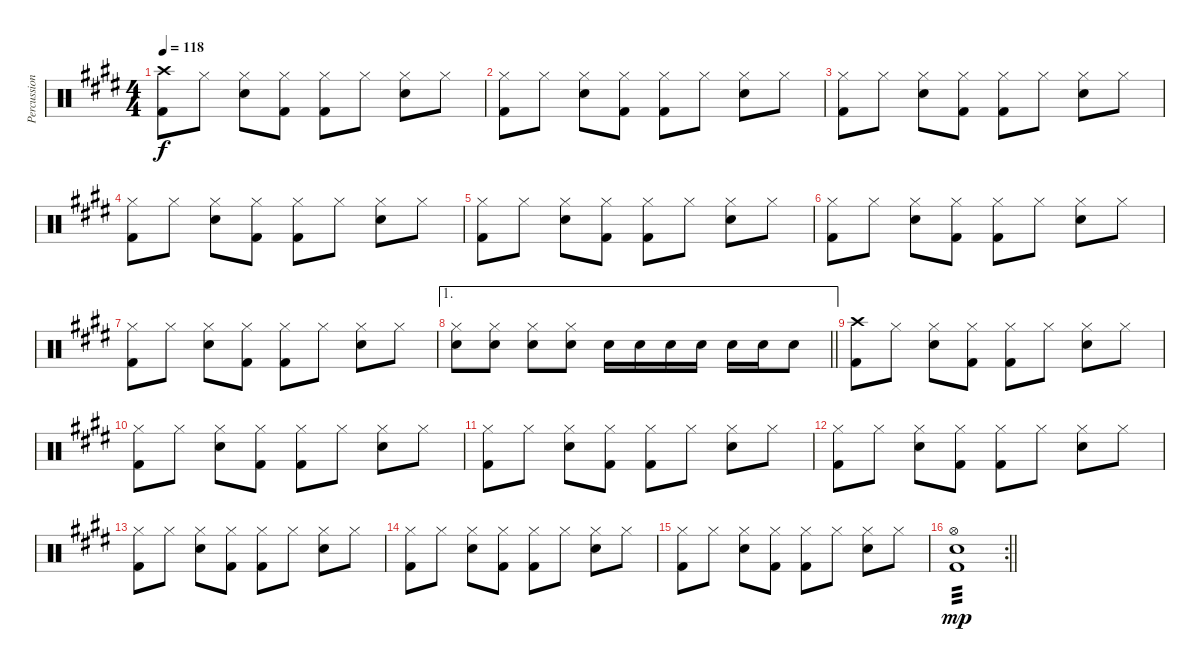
\track ("Percussion" "Percussion") {instrument percussion}
\staff {score}
\articulation defaults
\ts (4 4)
\tempo 118
\clef neutral
\ks e
("Crash high (hit)" "Kick (hit) 2").8{dy f} "Hi-Hat (closed)".8 ("Hi-Hat (closed)" "Snare (hit) 2").8 ("Hi-Hat (closed)" "Kick (hit) 2").8 ("Hi-Hat (closed)" "Kick (hit) 2").8 "Hi-Hat (closed)".8 ("Hi-Hat (closed)" "Snare (hit) 2").8 "Hi-Hat (closed)".8 |
("Hi-Hat (closed)" "Kick (hit) 2").8 "Hi-Hat (closed)".8 ("Hi-Hat (closed)" "Snare (hit) 2").8 ("Hi-Hat (closed)" "Kick (hit) 2").8 ("Hi-Hat (closed)" "Kick (hit) 2").8 "Hi-Hat (closed)".8 ("Hi-Hat (closed)" "Snare (hit) 2").8 "Hi-Hat (closed)".8 |
("Hi-Hat (closed)" "Kick (hit) 2").8 "Hi-Hat (closed)".8 ("Hi-Hat (closed)" "Snare (hit) 2").8 ("Hi-Hat (closed)" "Kick (hit) 2").8 ("Hi-Hat (closed)" "Kick (hit) 2").8 "Hi-Hat (closed)".8 ("Hi-Hat (closed)" "Snare (hit) 2").8 "Hi-Hat (closed)".8 |
("Hi-Hat (closed)" "Kick (hit) 2").8 "Hi-Hat (closed)".8 ("Hi-Hat (closed)" "Snare (hit) 2").8 ("Hi-Hat (closed)" "Kick (hit) 2").8 ("Hi-Hat (closed)" "Kick (hit) 2").8 "Hi-Hat (closed)".8 ("Hi-Hat (closed)" "Snare (hit) 2").8 "Hi-Hat (closed)".8 |
("Hi-Hat (closed)" "Kick (hit) 2").8 "Hi-Hat (closed)".8 ("Hi-Hat (closed)" "Snare (hit) 2").8 ("Hi-Hat (closed)" "Kick (hit) 2").8 ("Hi-Hat (closed)" "Kick (hit) 2").8 "Hi-Hat (closed)".8 ("Hi-Hat (closed)" "Snare (hit) 2").8 "Hi-Hat (closed)".8 |
("Hi-Hat (closed)" "Kick (hit) 2").8 "Hi-Hat (closed)".8 ("Hi-Hat (closed)" "Snare (hit) 2").8 ("Hi-Hat (closed)" "Kick (hit) 2").8 ("Hi-Hat (closed)" "Kick (hit) 2").8 "Hi-Hat (closed)".8 ("Hi-Hat (closed)" "Snare (hit) 2").8 "Hi-Hat (closed)".8 |
("Hi-Hat (closed)" "Kick (hit) 2").8 "Hi-Hat (closed)".8 ("Hi-Hat (closed)" "Snare (hit) 2").8 ("Hi-Hat (closed)" "Kick (hit) 2").8 ("Hi-Hat (closed)" "Kick (hit) 2").8 "Hi-Hat (closed)".8 ("Hi-Hat (closed)" "Snare (hit) 2").8 "Hi-Hat (closed)".8 |
\ae 1
\barLineRight lightlight
("Hi-Hat (closed)" "Snare (hit) 2").8 ("Hi-Hat (closed)" "Snare (hit) 2").8 ("Hi-Hat (closed)" "Snare (hit) 2").8 ("Hi-Hat (closed)" "Snare (hit) 2").8 "Snare (hit) 2".16 "Snare (hit) 2".16 "Snare (hit) 2".16 "Snare (hit) 2".16 "Snare (hit) 2".16 "Snare (hit) 2".16 "Snare (hit) 2".8 |
("Crash high (hit)" "Kick (hit) 2").8 "Hi-Hat (closed)".8 ("Hi-Hat (closed)" "Snare (hit) 2").8 ("Hi-Hat (closed)" "Kick (hit) 2").8 ("Hi-Hat (closed)" "Kick (hit) 2").8 "Hi-Hat (closed)".8 ("Hi-Hat (closed)" "Snare (hit) 2").8 "Hi-Hat (closed)".8 |
("Hi-Hat (closed)" "Kick (hit) 2").8 "Hi-Hat (closed)".8 ("Hi-Hat (closed)" "Snare (hit) 2").8 ("Hi-Hat (closed)" "Kick (hit) 2").8 ("Hi-Hat (closed)" "Kick (hit) 2").8 "Hi-Hat (closed)".8 ("Hi-Hat (closed)" "Snare (hit) 2").8 "Hi-Hat (closed)".8 |
("Hi-Hat (closed)" "Kick (hit) 2").8 "Hi-Hat (closed)".8 ("Hi-Hat (closed)" "Snare (hit) 2").8 ("Hi-Hat (closed)" "Kick (hit) 2").8 ("Hi-Hat (closed)" "Kick (hit) 2").8 "Hi-Hat (closed)".8 ("Hi-Hat (closed)" "Snare (hit) 2").8 "Hi-Hat (closed)".8 |
("Hi-Hat (closed)" "Kick (hit) 2").8 "Hi-Hat (closed)".8 ("Hi-Hat (closed)" "Snare (hit) 2").8 ("Hi-Hat (closed)" "Kick (hit) 2").8 ("Hi-Hat (closed)" "Kick (hit) 2").8 "Hi-Hat (closed)".8 ("Hi-Hat (closed)" "Snare (hit) 2").8 "Hi-Hat (closed)".8 |
("Hi-Hat (closed)" "Kick (hit) 2").8 "Hi-Hat (closed)".8 ("Hi-Hat (closed)" "Snare (hit) 2").8 ("Hi-Hat (closed)" "Kick (hit) 2").8 ("Hi-Hat (closed)" "Kick (hit) 2").8 "Hi-Hat (closed)".8 ("Hi-Hat (closed)" "Snare (hit) 2").8 "Hi-Hat (closed)".8 |
("Hi-Hat (closed)" "Kick (hit) 2").8 "Hi-Hat (closed)".8 ("Hi-Hat (closed)" "Snare (hit) 2").8 ("Hi-Hat (closed)" "Kick (hit) 2").8 ("Hi-Hat (closed)" "Kick (hit) 2").8 "Hi-Hat (closed)".8 ("Hi-Hat (closed)" "Snare (hit) 2").8 "Hi-Hat (closed)".8 |
("Hi-Hat (closed)" "Kick (hit) 2").8 "Hi-Hat (closed)".8 ("Hi-Hat (closed)" "Snare (hit) 2").8 ("Hi-Hat (closed)" "Kick (hit) 2").8 ("Hi-Hat (closed)" "Kick (hit) 2").8 "Hi-Hat (closed)".8 ("Hi-Hat (closed)" "Snare (hit) 2").8 "Hi-Hat (closed)".8 |
\rc 2
\barLineRight lightlight
("Snare (hit) 2" "Kick (hit) 2" "Hi-Hat (open)").1{tp 3 dy mp}
